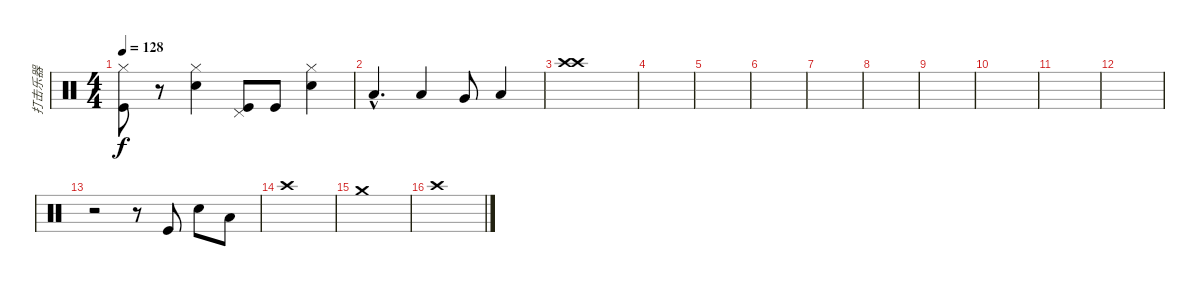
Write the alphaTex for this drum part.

\track ("打击乐器" "打击乐器") {instrument percussion}
\staff {score}
\articulation defaults
\ts (4 4)
\tempo 128
\clef neutral
\ks c
("Hi-Hat (closed)" "Kick (hit)").8{dy f} r.8 ("Hi-Hat (closed)" "Snare (hit) 2").4 ("Pedal Hi-Hat (hit)" "Kick (hit)").8 "Kick (hit)".8 ("Hi-Hat (closed)" "Snare (hit) 2").4 |
"Low Tom (hit)"{hac}.4{d} "Low Tom (hit)".4 "Very Low Tom (hit)".8 "Low Floor Tom (hit)".4 |
("Crash high (hit)" "Crash high (hit)").1 |
|
|
|
|
|
|
|
|
|
r.2 r.8 "Kick (hit)".8 "Snare (hit) 2".8 "Low Floor Tom (hit)".8 |
"Crash high (hit)".1 |
"Crash medium (hit)".1 |
"Crash high (hit)".1
